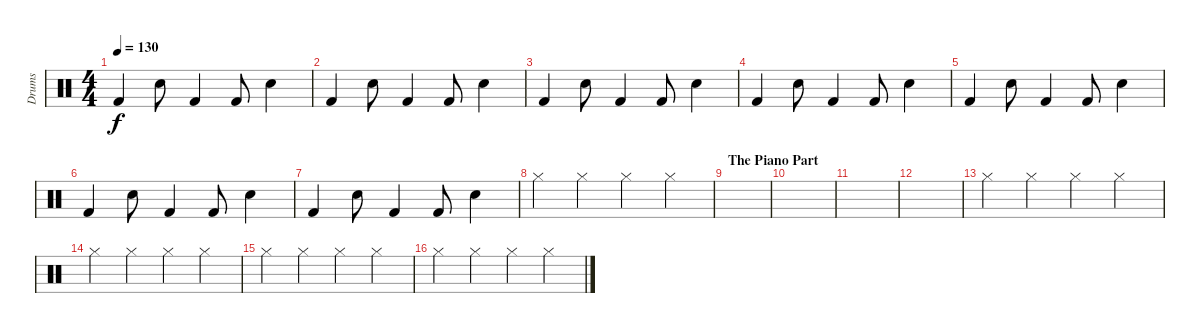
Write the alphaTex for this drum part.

\track ("Drums" "Drums") {instrument percussion}
\staff {score}
\articulation defaults
\ts (4 4)
\tempo 130
\clef neutral
\ks c "Kick (hit) 2".4{dy f} "Electric Snare (hit)".8 "Kick (hit) 2".4 "Kick (hit) 2".8 "Snare (hit) 2".4
|
"Kick (hit) 2".4 "Electric Snare (hit)".8 "Kick (hit) 2".4 "Kick (hit) 2".8 "Snare (hit) 2".4 |
"Kick (hit) 2".4 "Electric Snare (hit)".8 "Kick (hit) 2".4 "Kick (hit) 2".8 "Snare (hit) 2".4 |
"Kick (hit) 2".4 "Electric Snare (hit)".8 "Kick (hit) 2".4 "Kick (hit) 2".8 "Snare (hit) 2".4 |
"Kick (hit) 2".4 "Electric Snare (hit)".8 "Kick (hit) 2".4 "Kick (hit) 2".8 "Snare (hit) 2".4 |
"Kick (hit) 2".4 "Electric Snare (hit)".8 "Kick (hit) 2".4 "Kick (hit) 2".8 "Snare (hit) 2".4 |
"Kick (hit) 2".4 "Electric Snare (hit)".8 "Kick (hit) 2".4 "Kick (hit) 2".8 "Snare (hit) 2".4 |
"Hi-Hat (closed)".4 "Hi-Hat (closed)".4 "Hi-Hat (closed)".4 "Hi-Hat (closed)".4 |
\section ("" "The Piano Part")
|
|
|
|
"Hi-Hat (closed)".4 "Hi-Hat (closed)".4 "Hi-Hat (closed)".4 "Hi-Hat (closed)".4 |
"Hi-Hat (closed)".4 "Hi-Hat (closed)".4 "Hi-Hat (closed)".4 "Hi-Hat (closed)".4 |
"Hi-Hat (closed)".4 "Hi-Hat (closed)".4 "Hi-Hat (closed)".4 "Hi-Hat (closed)".4 |
"Hi-Hat (closed)".4 "Hi-Hat (closed)".4 "Hi-Hat (closed)".4 "Hi-Hat (closed)".4
